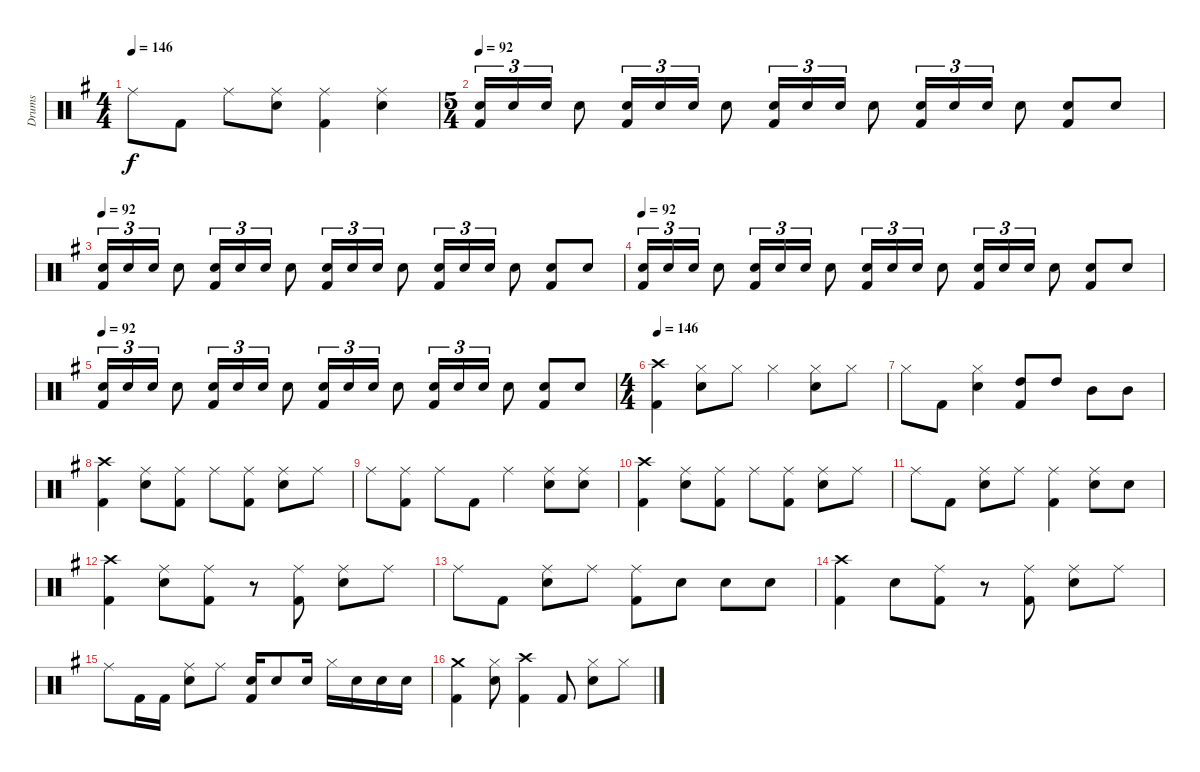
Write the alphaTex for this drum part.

\track ("Drums" "Drums") {instrument percussion}
\staff {score}
\articulation defaults
\ts (4 4)
\tempo 146
\clef neutral
\ks g "Ride (middle)".8{dy f} "Kick (hit) 2".8 "Ride (middle)".8
("Snare (hit) 2" "Ride (middle)").8 ("Kick (hit) 2" "Ride (middle)").4 ("Snare (hit) 2" "Ride (middle)").4 |
\ts (5 4)
\tempo 92
("Kick (hit) 2" "Snare (hit) 2").16{tu (3 2)} "Snare (hit) 2".16{tu (3 2)} "Snare (hit) 2".16{tu (3 2)} "Snare (hit) 2".8 ("Kick (hit) 2" "Snare (hit) 2").16{tu (3 2)} "Snare (hit) 2".16{tu (3 2)} "Snare (hit) 2".16{tu (3 2)} "Snare (hit) 2".8 ("Kick (hit) 2" "Snare (hit) 2").16{tu (3 2)} "Snare (hit) 2".16{tu (3 2)} "Snare (hit) 2".16{tu (3 2)} "Snare (hit) 2".8 ("Kick (hit) 2" "Snare (hit) 2").16{tu (3 2)} "Snare (hit) 2".16{tu (3 2)} "Snare (hit) 2".16{tu (3 2)} "Snare (hit) 2".8 ("Kick (hit) 2" "Snare (hit) 2").8 "Snare (hit) 2".8 |
\tempo 92
("Kick (hit) 2" "Snare (hit) 2").16{tu (3 2)} "Snare (hit) 2".16{tu (3 2)} "Snare (hit) 2".16{tu (3 2)} "Snare (hit) 2".8 ("Kick (hit) 2" "Snare (hit) 2").16{tu (3 2)} "Snare (hit) 2".16{tu (3 2)} "Snare (hit) 2".16{tu (3 2)} "Snare (hit) 2".8 ("Kick (hit) 2" "Snare (hit) 2").16{tu (3 2)} "Snare (hit) 2".16{tu (3 2)} "Snare (hit) 2".16{tu (3 2)} "Snare (hit) 2".8 ("Kick (hit) 2" "Snare (hit) 2").16{tu (3 2)} "Snare (hit) 2".16{tu (3 2)} "Snare (hit) 2".16{tu (3 2)} "Snare (hit) 2".8 ("Kick (hit) 2" "Snare (hit) 2").8 "Snare (hit) 2".8 |
\tempo 92
("Kick (hit) 2" "Snare (hit) 2").16{tu (3 2)} "Snare (hit) 2".16{tu (3 2)} "Snare (hit) 2".16{tu (3 2)} "Snare (hit) 2".8 ("Kick (hit) 2" "Snare (hit) 2").16{tu (3 2)} "Snare (hit) 2".16{tu (3 2)} "Snare (hit) 2".16{tu (3 2)} "Snare (hit) 2".8 ("Kick (hit) 2" "Snare (hit) 2").16{tu (3 2)} "Snare (hit) 2".16{tu (3 2)} "Snare (hit) 2".16{tu (3 2)} "Snare (hit) 2".8 ("Kick (hit) 2" "Snare (hit) 2").16{tu (3 2)} "Snare (hit) 2".16{tu (3 2)} "Snare (hit) 2".16{tu (3 2)} "Snare (hit) 2".8 ("Kick (hit) 2" "Snare (hit) 2").8 "Snare (hit) 2".8 |
\tempo 92
("Kick (hit) 2" "Snare (hit) 2").16{tu (3 2)} "Snare (hit) 2".16{tu (3 2)} "Snare (hit) 2".16{tu (3 2)} "Snare (hit) 2".8 ("Kick (hit) 2" "Snare (hit) 2").16{tu (3 2)} "Snare (hit) 2".16{tu (3 2)} "Snare (hit) 2".16{tu (3 2)} "Snare (hit) 2".8 ("Kick (hit) 2" "Snare (hit) 2").16{tu (3 2)} "Snare (hit) 2".16{tu (3 2)} "Snare (hit) 2".16{tu (3 2)} "Snare (hit) 2".8 ("Kick (hit) 2" "Snare (hit) 2").16{tu (3 2)} "Snare (hit) 2".16{tu (3 2)} "Snare (hit) 2".16{tu (3 2)} "Snare (hit) 2".8 ("Kick (hit) 2" "Snare (hit) 2").8 "Snare (hit) 2".8 |
\ts (4 4)
\tempo 146
("Kick (hit) 2" "Crash high (hit)").4 ("Snare (hit) 2" "Hi-Hat (closed)").8 "Hi-Hat (closed)".8 "Hi-Hat (closed)".4 ("Snare (hit) 2" "Hi-Hat (closed)").8 "Hi-Hat (closed)".8 |
"Hi-Hat (closed)".8 "Kick (hit) 2".8 ("Snare (hit) 2" "Hi-Hat (closed)").4 ("Kick (hit) 2" "High Tom (hit)").8 "High Tom (hit)".8 "Mid Tom (hit)".8 "Mid Tom (hit)".8 |
("Kick (hit) 2" "Crash high (hit)").4 ("Snare (hit) 2" "Ride (middle)").8 ("Kick (hit) 2" "Ride (middle)").8 "Ride (middle)".8 ("Kick (hit) 2" "Ride (middle)").8 ("Snare (hit) 2" "Ride (middle)").8 "Ride (middle)".8 |
"Ride (middle)".8 ("Kick (hit) 2" "Ride (middle)").8 "Ride (middle)".8 "Kick (hit) 2".8 "Ride (middle)".4 ("Snare (hit) 2" "Ride (middle)").8 ("Snare (hit) 2" "Ride (middle)").8 |
("Kick (hit) 2" "Crash high (hit)").4 ("Snare (hit) 2" "Ride (middle)").8 ("Kick (hit) 2" "Ride (middle)").8 "Ride (middle)".8 ("Kick (hit) 2" "Ride (middle)").8 ("Snare (hit) 2" "Ride (middle)").8 "Ride (middle)".8 |
"Ride (middle)".8 "Kick (hit) 2".8 ("Snare (hit) 2" "Ride (middle)").8 "Ride (middle)".8 ("Kick (hit) 2" "Ride (middle)").4 ("Snare (hit) 2" "Ride (middle)").8 "Snare (hit) 2".8 |
("Kick (hit) 2" "Crash high (hit)").4 ("Snare (hit) 2" "Ride (middle)").8 ("Kick (hit) 2" "Ride (middle)").8 r.8 ("Kick (hit) 2" "Ride (middle)").8 ("Snare (hit) 2" "Ride (middle)").8 "Ride (middle)".8 |
"Ride (middle)".8 "Kick (hit) 2".8 ("Snare (hit) 2" "Ride (middle)").8 "Ride (middle)".8 ("Kick (hit) 2" "Ride (middle)").8 "Snare (hit) 2".8 "Snare (hit) 2".8 "Snare (hit) 2".8 |
("Kick (hit) 2" "Crash high (hit)").4 "Snare (hit) 2".8 ("Kick (hit) 2" "Ride (middle)").8 r.8 ("Kick (hit) 2" "Ride (middle)").8 ("Snare (hit) 2" "Ride (middle)").8 "Ride (middle)".8 |
"Ride (middle)".8 "Kick (hit) 2".16 "Kick (hit) 2".16 ("Snare (hit) 2" "Ride (middle)").8 "Ride (middle)".8 ("Kick (hit) 2" "Snare (hit) 2").16 "Snare (hit) 2".8 "Snare (hit) 2".16 "Hi-Hat (closed)".16 "Snare (hit) 2".16 "Snare (hit) 2".16 "Snare (hit) 2".16 |
("Kick (hit) 2" "Crash medium (hit)").4 ("Snare (hit) 2" "Hi-Hat (closed)").8 ("Kick (hit) 2" "Crash high (hit)").4 "Kick (hit) 2".8 ("Snare (hit) 2" "Hi-Hat (closed)").8 "Hi-Hat (closed)".8
